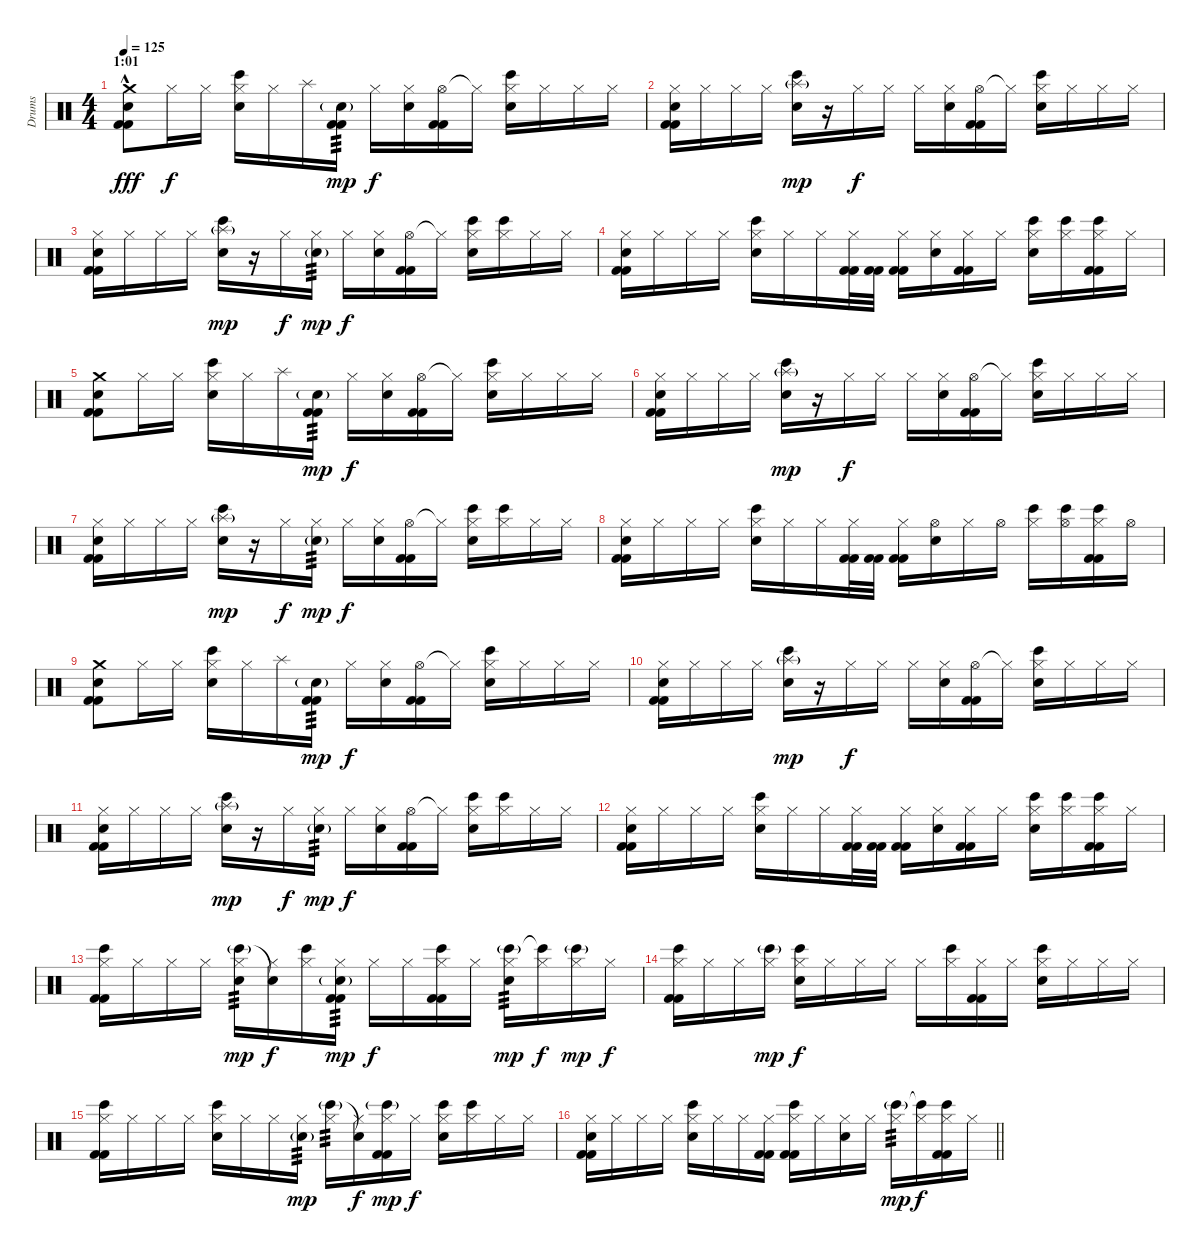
\track ("Drums" "Drums") {instrument percussion}
\staff {score}
\articulation defaults
\ts (4 4)
\section ("" "1:01")
\tempo 125
\clef neutral
\ks c
("Crash medium (hit)"{hac} "Hand Clap (hit)" "Kick (hit) 2" "Kick (hit) 2").8{dy fff} "Hi-Hat (closed)".16{dy f} "Hi-Hat (closed)".16 ("Bongo High (hit)" "Hi-Hat (closed)" "Electric Snare (hit)").16 "Hi-Hat (closed)".16 "Splash (hit)".16 ("Electric Snare (hit)"{g} "Kick (hit) 2" "Kick (hit) 2").16{tp 3 dy mp} "Hi-Hat (closed)".16{dy f} ("Hand Clap (hit)" "Hi-Hat (closed)").16 ("Hi-Hat (open)" "Kick (hit) 2" "Kick (hit) 2").16 "Hi-Hat (closed)"{t}.16 ("Bongo High (hit)" "Hi-Hat (closed)" "Electric Snare (hit)").16 "Hi-Hat (closed)".16 "Hi-Hat (closed)".16 "Hi-Hat (closed)".16 |
("Hand Clap (hit)" "Hi-Hat (closed)" "Kick (hit) 2" "Kick (hit) 2").16 "Hi-Hat (closed)".16 "Hi-Hat (closed)".16 "Hi-Hat (closed)".16 ("Bongo High (hit)" "Splash (hit)"{g} "Electric Snare (hit)").16{dy mp} r.16 "Hi-Hat (closed)".16{dy f} "Hi-Hat (closed)".16 "Hi-Hat (closed)".16 ("Hand Clap (hit)" "Hi-Hat (closed)").16 ("Hi-Hat (open)" "Kick (hit) 2" "Kick (hit) 2").16 "Hi-Hat (closed)"{t}.16 ("Bongo High (hit)" "Hi-Hat (closed)" "Electric Snare (hit)").16 "Hi-Hat (closed)".16 "Hi-Hat (closed)".16 "Hi-Hat (closed)".16 |
("Hand Clap (hit)" "Hi-Hat (closed)" "Kick (hit) 2" "Kick (hit) 2").16 "Hi-Hat (closed)".16 "Hi-Hat (closed)".16 "Hi-Hat (closed)".16 ("Bongo High (hit)" "Splash (hit)"{g} "Electric Snare (hit)").16{dy mp} r.16 "Hi-Hat (closed)".16{dy f} ("Hi-Hat (closed)" "Electric Snare (hit)"{g}).16{tp 3 dy mp} "Hi-Hat (closed)".16{dy f} ("Snare (hit) 2" "Hi-Hat (closed)").16 ("Hi-Hat (open)" "Kick (hit) 2" "Kick (hit) 2").16 "Hi-Hat (closed)"{t}.16 ("Bongo High (hit)" "Hi-Hat (closed)" "Electric Snare (hit)").16 ("Bongo High (hit)" "Hi-Hat (closed)").16 "Hi-Hat (closed)".16 "Hi-Hat (closed)".16 |
("Hand Clap (hit)" "Hi-Hat (closed)" "Kick (hit) 2" "Kick (hit) 2").16 "Hi-Hat (closed)".16 "Hi-Hat (closed)".16 "Hi-Hat (closed)".16 ("Bongo High (hit)" "Hi-Hat (closed)" "Electric Snare (hit)").16 "Hi-Hat (closed)".16 "Hi-Hat (closed)".16 ("Hi-Hat (closed)" "Kick (hit) 2" "Kick (hit) 2").32 ("Kick (hit) 2" "Kick (hit) 2").32 ("Hi-Hat (closed)" "Kick (hit) 2" "Kick (hit) 2").16 ("Hand Clap (hit)" "Hi-Hat (closed)").16 ("Hi-Hat (closed)" "Kick (hit) 2" "Kick (hit) 2").16 "Hi-Hat (closed)".16 ("Bongo High (hit)" "Hi-Hat (closed)" "Electric Snare (hit)").16 ("Bongo High (hit)" "Hi-Hat (closed)").16 ("Bongo High (hit)" "Hi-Hat (closed)" "Kick (hit) 2" "Kick (hit) 2").16 "Hi-Hat (closed)".16 |
("Crash medium (hit)" "Hand Clap (hit)" "Kick (hit) 2" "Kick (hit) 2").8 "Hi-Hat (closed)".16 "Hi-Hat (closed)".16 ("Bongo High (hit)" "Hi-Hat (closed)" "Electric Snare (hit)").16 "Hi-Hat (closed)".16 "Splash (hit)".16 ("Electric Snare (hit)"{g} "Kick (hit) 2" "Kick (hit) 2").16{tp 3 dy mp} "Hi-Hat (closed)".16{dy f} ("Hand Clap (hit)" "Hi-Hat (closed)").16 ("Hi-Hat (open)" "Kick (hit) 2" "Kick (hit) 2").16 "Hi-Hat (closed)"{t}.16 ("Bongo High (hit)" "Hi-Hat (closed)" "Electric Snare (hit)").16 "Hi-Hat (closed)".16 "Hi-Hat (closed)".16 "Hi-Hat (closed)".16 |
("Hand Clap (hit)" "Hi-Hat (closed)" "Kick (hit) 2" "Kick (hit) 2").16 "Hi-Hat (closed)".16 "Hi-Hat (closed)".16 "Hi-Hat (closed)".16 ("Bongo High (hit)" "Splash (hit)"{g} "Electric Snare (hit)").16{dy mp} r.16 "Hi-Hat (closed)".16{dy f} "Hi-Hat (closed)".16 "Hi-Hat (closed)".16 ("Hand Clap (hit)" "Hi-Hat (closed)").16 ("Hi-Hat (open)" "Kick (hit) 2" "Kick (hit) 2").16 "Hi-Hat (closed)"{t}.16 ("Bongo High (hit)" "Hi-Hat (closed)" "Electric Snare (hit)").16 "Hi-Hat (closed)".16 "Hi-Hat (closed)".16 "Hi-Hat (closed)".16 |
("Hand Clap (hit)" "Hi-Hat (closed)" "Kick (hit) 2" "Kick (hit) 2").16 "Hi-Hat (closed)".16 "Hi-Hat (closed)".16 "Hi-Hat (closed)".16 ("Bongo High (hit)" "Splash (hit)"{g} "Electric Snare (hit)").16{dy mp} r.16 "Hi-Hat (closed)".16{dy f} ("Hi-Hat (closed)" "Electric Snare (hit)"{g}).16{tp 3 dy mp} "Hi-Hat (closed)".16{dy f} ("Snare (hit) 2" "Hi-Hat (closed)").16 ("Hi-Hat (open)" "Kick (hit) 2" "Kick (hit) 2").16 "Hi-Hat (closed)"{t}.16 ("Bongo High (hit)" "Hi-Hat (closed)" "Electric Snare (hit)").16 ("Bongo High (hit)" "Hi-Hat (closed)").16 "Hi-Hat (closed)".16 "Hi-Hat (closed)".16 |
("Hand Clap (hit)" "Hi-Hat (closed)" "Kick (hit) 2" "Kick (hit) 2").16 "Hi-Hat (closed)".16 "Hi-Hat (closed)".16 "Hi-Hat (closed)".16 ("Bongo High (hit)" "Hi-Hat (closed)" "Electric Snare (hit)").16 "Hi-Hat (closed)".16 "Hi-Hat (closed)".16 ("Hi-Hat (closed)" "Kick (hit) 2" "Kick (hit) 2").32 ("Kick (hit) 2" "Kick (hit) 2").32 ("Hi-Hat (closed)" "Kick (hit) 2" "Kick (hit) 2").16 ("Hand Clap (hit)" "Hi-Hat (open)").16 "Hi-Hat (closed)".16 "Hi-Hat (open)".16 ("Bongo High (hit)" "Hi-Hat (closed)").16 ("Bongo High (hit)" "Hi-Hat (open)").16 ("Bongo High (hit)" "Hi-Hat (closed)" "Kick (hit) 2" "Kick (hit) 2").16 "Hi-Hat (open)".16 |
("Crash medium (hit)" "Hand Clap (hit)" "Kick (hit) 2" "Kick (hit) 2").8 "Hi-Hat (closed)".16 "Hi-Hat (closed)".16 ("Bongo High (hit)" "Hi-Hat (closed)" "Electric Snare (hit)").16 "Hi-Hat (closed)".16 "Splash (hit)".16 ("Electric Snare (hit)"{g} "Kick (hit) 2" "Kick (hit) 2").16{tp 3 dy mp} "Hi-Hat (closed)".16{dy f} ("Hand Clap (hit)" "Hi-Hat (closed)").16 ("Hi-Hat (open)" "Kick (hit) 2" "Kick (hit) 2").16 "Hi-Hat (closed)"{t}.16 ("Bongo High (hit)" "Hi-Hat (closed)" "Electric Snare (hit)").16 "Hi-Hat (closed)".16 "Hi-Hat (closed)".16 "Hi-Hat (closed)".16 |
("Hand Clap (hit)" "Hi-Hat (closed)" "Kick (hit) 2" "Kick (hit) 2").16 "Hi-Hat (closed)".16 "Hi-Hat (closed)".16 "Hi-Hat (closed)".16 ("Bongo High (hit)" "Splash (hit)"{g} "Electric Snare (hit)").16{dy mp} r.16 "Hi-Hat (closed)".16{dy f} "Hi-Hat (closed)".16 "Hi-Hat (closed)".16 ("Hand Clap (hit)" "Hi-Hat (closed)").16 ("Hi-Hat (open)" "Kick (hit) 2" "Kick (hit) 2").16 "Hi-Hat (closed)"{t}.16 ("Bongo High (hit)" "Hi-Hat (closed)" "Electric Snare (hit)").16 "Hi-Hat (closed)".16 "Hi-Hat (closed)".16 "Hi-Hat (closed)".16 |
("Hand Clap (hit)" "Hi-Hat (closed)" "Kick (hit) 2" "Kick (hit) 2").16 "Hi-Hat (closed)".16 "Hi-Hat (closed)".16 "Hi-Hat (closed)".16 ("Bongo High (hit)" "Splash (hit)"{g} "Electric Snare (hit)").16{dy mp} r.16 "Hi-Hat (closed)".16{dy f} ("Hi-Hat (closed)" "Electric Snare (hit)"{g}).16{tp 3 dy mp} "Hi-Hat (closed)".16{dy f} ("Snare (hit) 2" "Hi-Hat (closed)").16 ("Hi-Hat (open)" "Kick (hit) 2" "Kick (hit) 2").16 "Hi-Hat (closed)"{t}.16 ("Bongo High (hit)" "Hi-Hat (closed)" "Electric Snare (hit)").16 ("Bongo High (hit)" "Hi-Hat (closed)").16 "Hi-Hat (closed)".16 "Hi-Hat (closed)".16 |
("Hand Clap (hit)" "Hi-Hat (closed)" "Kick (hit) 2" "Kick (hit) 2").16 "Hi-Hat (closed)".16 "Hi-Hat (closed)".16 "Hi-Hat (closed)".16 ("Bongo High (hit)" "Hi-Hat (closed)" "Electric Snare (hit)").16 "Hi-Hat (closed)".16 "Hi-Hat (closed)".16 ("Hi-Hat (closed)" "Kick (hit) 2" "Kick (hit) 2").32 ("Kick (hit) 2" "Kick (hit) 2").32 ("Hi-Hat (closed)" "Kick (hit) 2" "Kick (hit) 2").16 ("Hand Clap (hit)" "Hi-Hat (closed)").16 ("Hi-Hat (closed)" "Kick (hit) 2" "Kick (hit) 2").16 "Hi-Hat (closed)".16 ("Bongo High (hit)" "Hi-Hat (closed)" "Electric Snare (hit)").16 ("Bongo High (hit)" "Hi-Hat (closed)").16 ("Bongo High (hit)" "Hi-Hat (closed)" "Kick (hit) 2" "Kick (hit) 2").16 "Hi-Hat (closed)".16 |
("Bongo High (hit)" "Hi-Hat (closed)" "Kick (hit) 2" "Kick (hit) 2").16 "Hi-Hat (closed)".16 "Hi-Hat (closed)".16 "Hi-Hat (closed)".16 ("Bongo High (hit)"{g} "Hi-Hat (closed)" "Electric Snare (hit)").16{tp 3 dy mp} ("Snare (hit)"{t} "Hi-Hat (closed)").16{dy f} ("Bongo High (hit)" "Hi-Hat (closed)").16 ("Hi-Hat (closed)" "Electric Snare (hit)"{g} "Kick (hit) 2" "Kick (hit) 2").16{tp 3 dy mp} "Hi-Hat (closed)".16{dy f} "Hi-Hat (closed)".16 ("Bongo High (hit)" "Hi-Hat (closed)" "Kick (hit) 2" "Kick (hit) 2").16 "Hi-Hat (closed)".16 ("Bongo High (hit)"{g} "Hi-Hat (closed)" "Electric Snare (hit)").16{tp 3 dy mp} ("Bongo High (hit)"{t} "Hi-Hat (closed)").16{dy f} ("Bongo High (hit)"{g} "Hi-Hat (closed)").16{dy mp} "Hi-Hat (closed)".16{dy f} |
("Bongo High (hit)" "Hi-Hat (closed)" "Kick (hit) 2" "Kick (hit) 2").16 "Hi-Hat (closed)".16 "Hi-Hat (closed)".16 ("Bongo High (hit)"{g} "Hi-Hat (closed)").16{dy mp} ("Bongo High (hit)" "Hi-Hat (closed)" "Electric Snare (hit)").16{dy f} "Hi-Hat (closed)".16 "Hi-Hat (closed)".16 "Hi-Hat (closed)".16 "Hi-Hat (closed)".16 ("Bongo High (hit)" "Hi-Hat (closed)").16 ("Hi-Hat (closed)" "Kick (hit) 2" "Kick (hit) 2").16 "Hi-Hat (closed)".16 ("Bongo High (hit)" "Hi-Hat (closed)" "Electric Snare (hit)").16 "Hi-Hat (closed)".16 "Hi-Hat (closed)".16 "Hi-Hat (closed)".16 |
("Bongo High (hit)" "Hi-Hat (closed)" "Kick (hit) 2" "Kick (hit) 2").16 "Hi-Hat (closed)".16 "Hi-Hat (closed)".16 "Hi-Hat (closed)".16 ("Bongo High (hit)" "Hi-Hat (closed)" "Electric Snare (hit)").16 "Hi-Hat (closed)".16 "Hi-Hat (closed)".16 ("Hi-Hat (closed)" "Electric Snare (hit)"{g}).16{tp 3 dy mp} ("Bongo High (hit)"{g} "Hi-Hat (closed)").16{tp 3} ("Snare (hit) 2"{t} "Hi-Hat (closed)").16{dy f} ("Bongo High (hit)"{g} "Hi-Hat (closed)" "Kick (hit) 2" "Kick (hit) 2").16{dy mp} "Hi-Hat (closed)".16{dy f} ("Bongo High (hit)" "Hi-Hat (closed)" "Electric Snare (hit)").16 ("Bongo High (hit)" "Hi-Hat (closed)").16 "Hi-Hat (closed)".16 "Hi-Hat (closed)".16 |
\barLineRight lightlight
("Hand Clap (hit)" "Hi-Hat (closed)" "Kick (hit) 2" "Kick (hit) 2").16 "Hi-Hat (closed)".16 "Hi-Hat (closed)".16 "Hi-Hat (closed)".16 ("Bongo High (hit)" "Hi-Hat (closed)" "Electric Snare (hit)").16 "Hi-Hat (closed)".16 "Hi-Hat (closed)".16 ("Hi-Hat (closed)" "Kick (hit) 2" "Kick (hit) 2").16 ("Bongo High (hit)" "Hi-Hat (closed)" "Kick (hit) 2" "Kick (hit) 2").16 "Hi-Hat (closed)".16 ("Hi-Hat (closed)" "Electric Snare (hit)").16 "Hi-Hat (closed)".16 ("Bongo High (hit)"{g} "Hi-Hat (closed)").16{tp 3 dy mp} ("Bongo High (hit)"{t} "Hi-Hat (closed)").16{dy f} ("Bongo High (hit)" "Hi-Hat (closed)" "Kick (hit) 2" "Kick (hit) 2").16 "Hi-Hat (closed)".16
